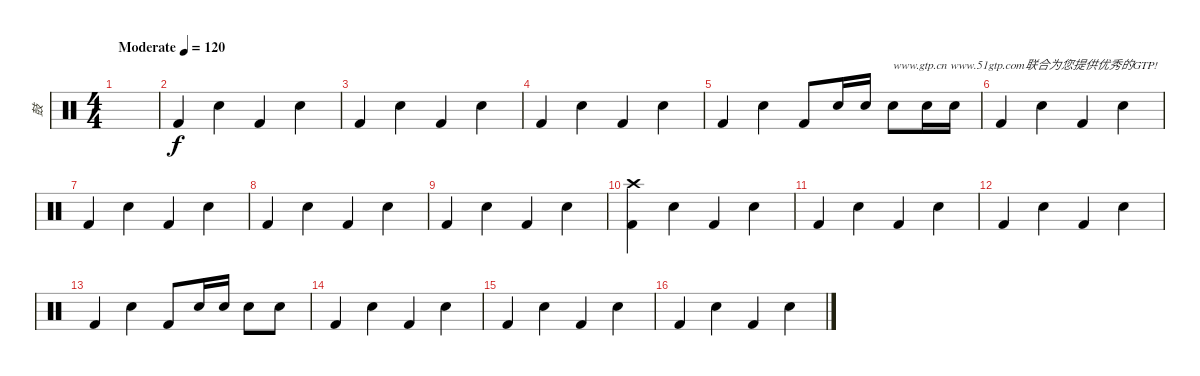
\track ("鼓" "鼓") {instrument percussion}
\staff {score}
\articulation defaults
\ts (4 4)
\tempo (120 "Moderate")
\clef neutral
\ks c
|
"Kick (hit) 2".4 "Snare (hit) 2".4 "Kick (hit) 2".4 "Snare (hit) 2".4 |
"Kick (hit) 2".4 "Snare (hit) 2".4 "Kick (hit) 2".4 "Snare (hit) 2".4 |
"Kick (hit) 2".4 "Snare (hit) 2".4 "Kick (hit) 2".4 "Snare (hit) 2".4 |
"Kick (hit) 2".4 "Snare (hit) 2".4 "Kick (hit) 2".8 "Snare (hit) 2".16 "Snare (hit) 2".16 "Snare (hit) 2".8{txt "www.gtp.cn www.51gtp.com联合为您提供优秀的GTP!"} "Snare (hit) 2".16 "Snare (hit) 2".16 |
"Kick (hit) 2".4 "Snare (hit) 2".4 "Kick (hit) 2".4 "Snare (hit) 2".4 |
"Kick (hit) 2".4 "Snare (hit) 2".4 "Kick (hit) 2".4 "Snare (hit) 2".4 |
"Kick (hit) 2".4 "Snare (hit) 2".4 "Kick (hit) 2".4 "Snare (hit) 2".4 |
"Kick (hit) 2".4 "Snare (hit) 2".4 "Kick (hit) 2".4 "Snare (hit) 2".4 |
("Crash high (hit)" "Kick (hit) 2").4 "Snare (hit) 2".4 "Kick (hit) 2".4 "Snare (hit) 2".4 |
"Kick (hit) 2".4 "Snare (hit) 2".4 "Kick (hit) 2".4 "Snare (hit) 2".4 |
"Kick (hit) 2".4 "Snare (hit) 2".4 "Kick (hit) 2".4 "Snare (hit) 2".4 |
"Kick (hit) 2".4 "Snare (hit) 2".4 "Kick (hit) 2".8 "Snare (hit) 2".16 "Snare (hit) 2".16 "Snare (hit) 2".8 "Snare (hit) 2".8 |
"Kick (hit) 2".4 "Snare (hit) 2".4 "Kick (hit) 2".4 "Snare (hit) 2".4 |
"Kick (hit) 2".4 "Snare (hit) 2".4 "Kick (hit) 2".4 "Snare (hit) 2".4 |
"Kick (hit) 2".4 "Snare (hit) 2".4 "Kick (hit) 2".4 "Snare (hit) 2".4
